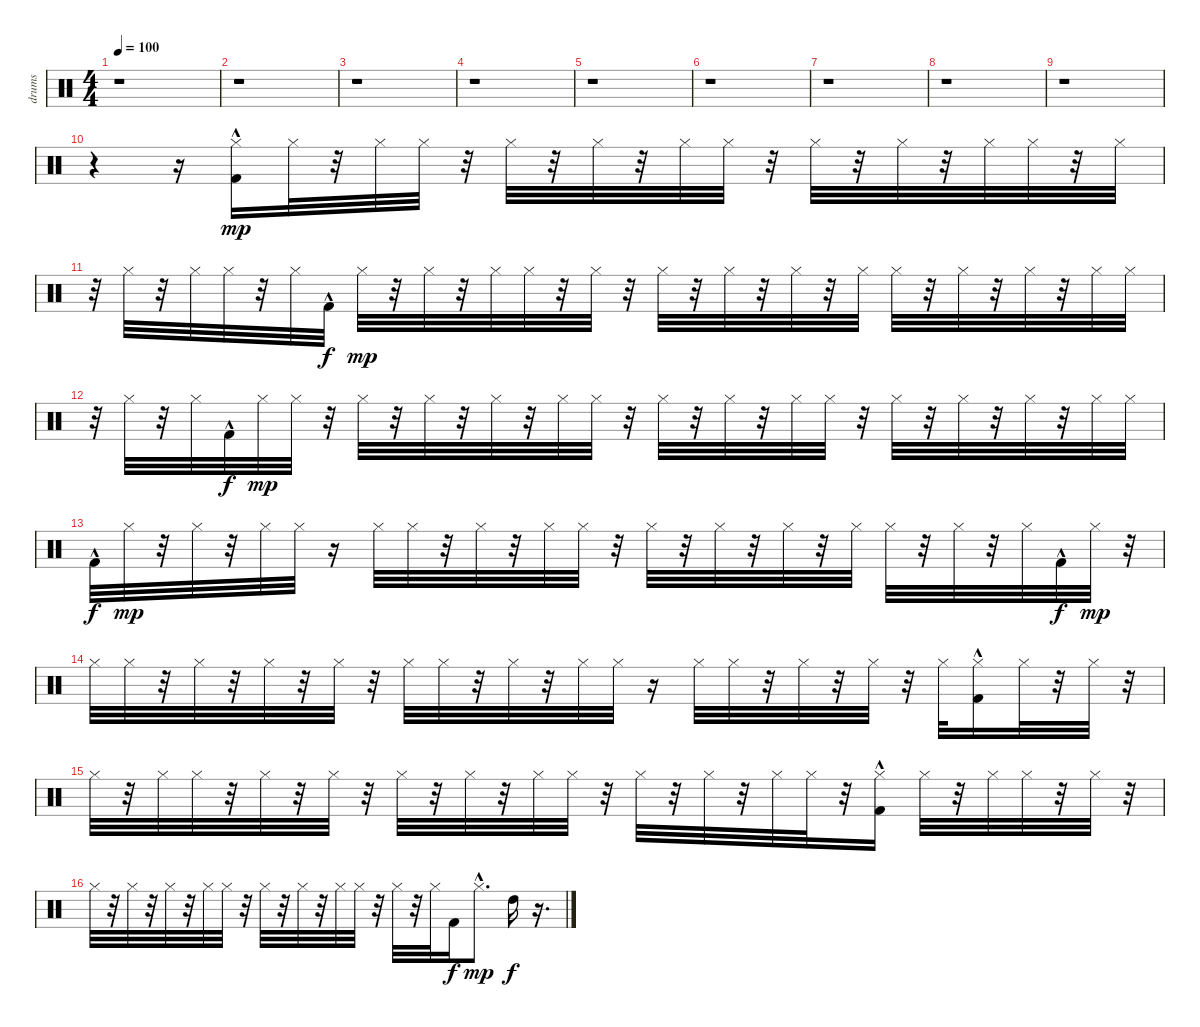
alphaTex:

\track ("drums" "drums") {instrument percussion}
\staff {score}
\articulation defaults
\ts (4 4)
\tempo 100
\clef neutral
\ks c
r.1{dy mp} |
r.1 |
r.1 |
r.1 |
r.1 |
r.1 |
r.1 |
r.1 |
r.1 |
r.4 r.16 ("Kick (hit) 2"{hac} "Hi-Hat (closed)").16 "Hi-Hat (closed)".32 r.32 "Hi-Hat (closed)".32 "Hi-Hat (closed)".32 r.32 "Hi-Hat (closed)".32 r.32 "Hi-Hat (closed)".32 r.32 "Hi-Hat (closed)".32 "Hi-Hat (closed)".32 r.32 "Hi-Hat (closed)".32 r.32 "Hi-Hat (closed)".32 r.32 "Hi-Hat (closed)".32 "Hi-Hat (closed)".32 r.32 "Hi-Hat (closed)".32 |
r.32 "Hi-Hat (closed)".32 r.32 "Hi-Hat (closed)".32 "Hi-Hat (closed)".32 r.32 "Hi-Hat (closed)".32 "Kick (hit) 2"{hac}.32{dy f} "Hi-Hat (closed)".32{dy mp} r.32 "Hi-Hat (closed)".32 r.32 "Hi-Hat (closed)".32 "Hi-Hat (closed)".32 r.32 "Hi-Hat (closed)".32 r.32 "Hi-Hat (closed)".32 r.32 "Hi-Hat (closed)".32 r.32 "Hi-Hat (closed)".32 r.32 "Hi-Hat (closed)".32 "Hi-Hat (closed)".32 r.32 "Hi-Hat (closed)".32 r.32 "Hi-Hat (closed)".32 r.32 "Hi-Hat (closed)".32 "Hi-Hat (closed)".32 |
r.32 "Hi-Hat (closed)".32 r.32 "Hi-Hat (closed)".32 "Kick (hit) 2"{hac}.32{dy f} "Hi-Hat (closed)".32{dy mp} "Hi-Hat (closed)".32 r.32 "Hi-Hat (closed)".32 r.32 "Hi-Hat (closed)".32 r.32 "Hi-Hat (closed)".32 r.32 "Hi-Hat (closed)".32 "Hi-Hat (closed)".32 r.32 "Hi-Hat (closed)".32 r.32 "Hi-Hat (closed)".32 r.32 "Hi-Hat (closed)".32 "Hi-Hat (closed)".32 r.32 "Hi-Hat (closed)".32 r.32 "Hi-Hat (closed)".32 r.32 "Hi-Hat (closed)".32 r.32 "Hi-Hat (closed)".32 "Hi-Hat (closed)".32 |
"Kick (hit) 2"{hac}.32{dy f} "Hi-Hat (closed)".32{dy mp} r.32 "Hi-Hat (closed)".32 r.32 "Hi-Hat (closed)".32 "Hi-Hat (closed)".32 r.16 "Hi-Hat (closed)".32 "Hi-Hat (closed)".32 r.32 "Hi-Hat (closed)".32 r.32 "Hi-Hat (closed)".32 "Hi-Hat (closed)".32 r.32 "Hi-Hat (closed)".32 r.32 "Hi-Hat (closed)".32 r.32 "Hi-Hat (closed)".32 r.32 "Hi-Hat (closed)".32 "Hi-Hat (closed)".32 r.32 "Hi-Hat (closed)".32 r.32 "Hi-Hat (closed)".32 "Kick (hit) 2"{hac}.32{dy f} "Hi-Hat (closed)".32{dy mp} r.32 |
"Hi-Hat (closed)".32 "Hi-Hat (closed)".32 r.32 "Hi-Hat (closed)".32 r.32 "Hi-Hat (closed)".32 r.32 "Hi-Hat (closed)".32 r.32 "Hi-Hat (closed)".32 "Hi-Hat (closed)".32 r.32 "Hi-Hat (closed)".32 r.32 "Hi-Hat (closed)".32 "Hi-Hat (closed)".32 r.16 "Hi-Hat (closed)".32 "Hi-Hat (closed)".32 r.32 "Hi-Hat (closed)".32 r.32 "Hi-Hat (closed)".32 r.32 "Hi-Hat (closed)".32 ("Kick (hit) 2"{hac} "Hi-Hat (closed)").16 "Hi-Hat (closed)".32 r.32 "Hi-Hat (closed)".32 r.32 |
"Hi-Hat (closed)".32 r.32 "Hi-Hat (closed)".32 "Hi-Hat (closed)".32 r.32 "Hi-Hat (closed)".32 r.32 "Hi-Hat (closed)".32 r.32 "Hi-Hat (closed)".32 r.32 "Hi-Hat (closed)".32 r.32 "Hi-Hat (closed)".32 "Hi-Hat (closed)".32 r.32 "Hi-Hat (closed)".32 r.32 "Hi-Hat (closed)".32 r.32 "Hi-Hat (closed)".32 "Hi-Hat (closed)".32 r.32 ("Kick (hit) 2"{hac} "Hi-Hat (closed)").16 "Hi-Hat (closed)".32 r.32 "Hi-Hat (closed)".32 "Hi-Hat (closed)".32 r.32 "Hi-Hat (closed)".32 r.32 |
"Hi-Hat (closed)".32 r.32 "Hi-Hat (closed)".32 r.32 "Hi-Hat (closed)".32 r.32 "Hi-Hat (closed)".32 "Hi-Hat (closed)".32 r.32 "Hi-Hat (closed)".32 r.32 "Hi-Hat (closed)".32 r.32 "Hi-Hat (closed)".32 "Hi-Hat (closed)".32 r.32 "Hi-Hat (closed)".32 r.32 "Hi-Hat (closed)".32 "Kick (hit) 2".16{dy f} "Hi-Hat (closed)"{hac}.8{d dy mp} "High Tom (hit)".16{dy f} r.16{d}
